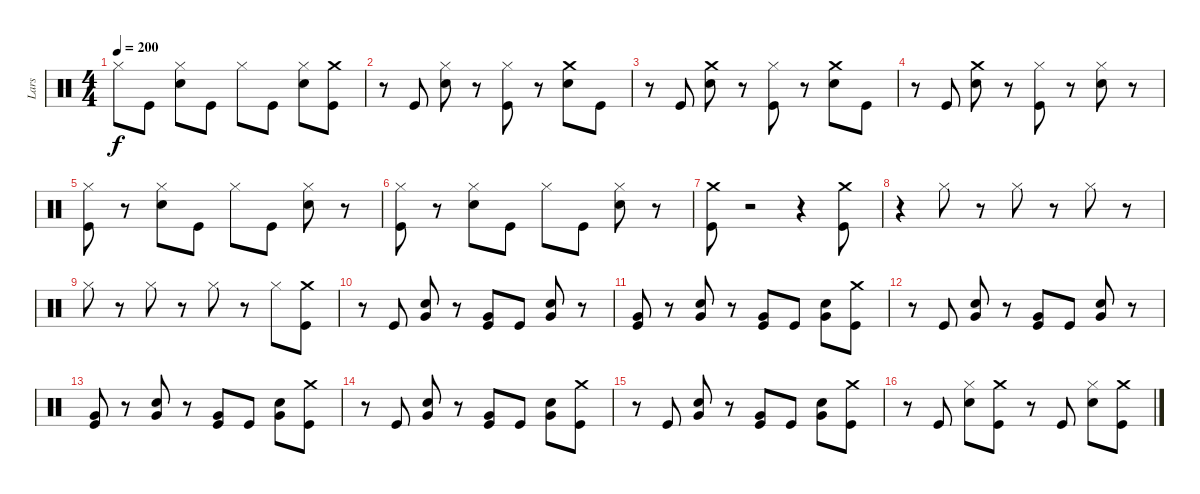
\track ("Lars" "Lars") {instrument percussion}
\staff {score}
\articulation defaults
\ts (4 4)
\tempo 200
\clef neutral
\ks c "Hi-Hat (closed)".8{dy f} "Kick (hit)".8
("Hi-Hat (closed)" "Snare (hit) 2").8 "Kick (hit)".8 "Hi-Hat (closed)".8 "Kick (hit)".8 ("Hi-Hat (closed)" "Snare (hit) 2").8 ("Crash medium (hit)" "Kick (hit)").8 |
r.8 "Kick (hit)".8 ("Hi-Hat (closed)" "Snare (hit) 2").8 r.8 ("Kick (hit)" "Hi-Hat (closed)").8 r.8 ("Crash medium (hit)" "Snare (hit) 2").8 "Kick (hit)".8 |
r.8 "Kick (hit)".8 ("Crash medium (hit)" "Snare (hit) 2").8 r.8 ("Kick (hit)" "Hi-Hat (closed)").8 r.8 ("Crash medium (hit)" "Snare (hit) 2").8 "Kick (hit)".8 |
r.8 "Kick (hit)".8 ("Crash medium (hit)" "Snare (hit) 2").8 r.8 ("Kick (hit)" "Hi-Hat (closed)").8 r.8 ("Hi-Hat (closed)" "Snare (hit) 2").8 r.8 |
("Hi-Hat (closed)" "Kick (hit)").8 r.8 ("Hi-Hat (closed)" "Snare (hit) 2").8 "Kick (hit)".8 "Hi-Hat (closed)".8 "Kick (hit)".8 ("Hi-Hat (closed)" "Snare (hit) 2").8 r.8 |
("Hi-Hat (closed)" "Kick (hit)").8 r.8 ("Hi-Hat (closed)" "Snare (hit) 2").8 "Kick (hit)".8 "Hi-Hat (closed)".8 "Kick (hit)".8 ("Hi-Hat (closed)" "Snare (hit) 2").8 r.8 |
("Crash medium (hit)" "Kick (hit)").8 r.2 r.4 ("Crash medium (hit)" "Kick (hit)").8 |
r.4 "Hi-Hat (closed)".8 r.8 "Hi-Hat (closed)".8 r.8 "Hi-Hat (closed)".8 r.8 |
"Hi-Hat (closed)".8 r.8 "Hi-Hat (closed)".8 r.8 "Hi-Hat (closed)".8 r.8 "Hi-Hat (closed)".8 ("Crash medium (hit)" "Kick (hit)").8 |
r.8 "Kick (hit)".8 ("Snare (hit) 2" "Very Low Tom (hit)").8 r.8 ("Very Low Tom (hit)" "Kick (hit)").8 "Kick (hit)".8 ("Very Low Tom (hit)" "Snare (hit) 2").8 r.8 |
("Very Low Tom (hit)" "Kick (hit)").8 r.8 ("Very Low Tom (hit)" "Snare (hit) 2").8 r.8 ("Kick (hit)" "Very Low Tom (hit)").8 "Kick (hit)".8 ("Very Low Tom (hit)" "Snare (hit) 2").8 ("Crash medium (hit)" "Kick (hit)").8 |
r.8 "Kick (hit)".8 ("Very Low Tom (hit)" "Snare (hit) 2").8 r.8 ("Kick (hit)" "Very Low Tom (hit)").8 "Kick (hit)".8 ("Snare (hit) 2" "Very Low Tom (hit)").8 r.8 |
("Very Low Tom (hit)" "Kick (hit)").8 r.8 ("Very Low Tom (hit)" "Snare (hit) 2").8 r.8 ("Kick (hit)" "Very Low Tom (hit)").8 "Kick (hit)".8 ("Very Low Tom (hit)" "Snare (hit) 2").8 ("Crash medium (hit)" "Kick (hit)").8 |
r.8 "Kick (hit)".8 ("Very Low Tom (hit)" "Snare (hit) 2").8 r.8 ("Very Low Tom (hit)" "Kick (hit)").8 "Kick (hit)".8 ("Very Low Tom (hit)" "Snare (hit) 2").8 ("Crash medium (hit)" "Kick (hit)").8 |
r.8 "Kick (hit)".8 ("Very Low Tom (hit)" "Snare (hit) 2").8 r.8 ("Very Low Tom (hit)" "Kick (hit)").8 "Kick (hit)".8 ("Snare (hit) 2" "Very Low Tom (hit)").8 ("Crash medium (hit)" "Kick (hit)").8 |
r.8 "Kick (hit)".8 ("Hi-Hat (closed)" "Snare (hit) 2").8 ("Crash medium (hit)" "Kick (hit)").8 r.8 "Kick (hit)".8 ("Hi-Hat (closed)" "Snare (hit) 2").8 ("Crash medium (hit)" "Kick (hit)").8
